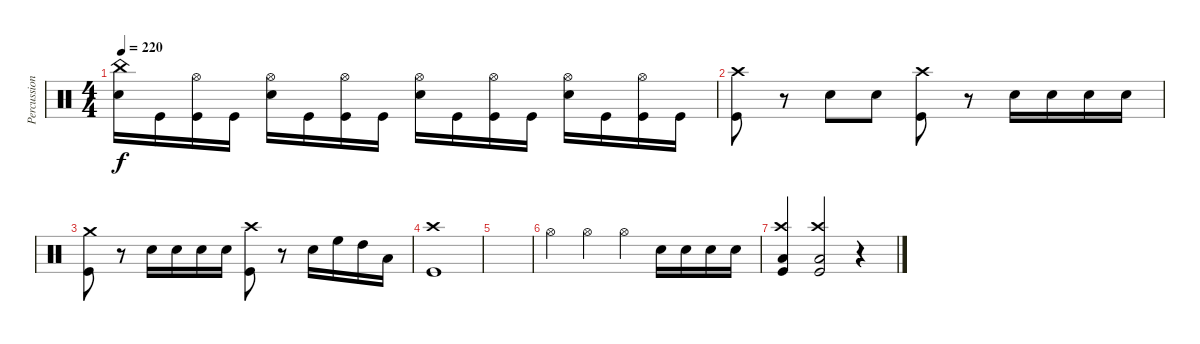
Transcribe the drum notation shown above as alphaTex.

\track ("Percussions" "Percussion") {instrument percussion}
\staff {score}
\articulation defaults
\ts (4 4)
\tempo 220
\clef neutral
\ks c
("China (hit)" "Electric Snare (hit)").16{dy f} "Kick (hit)".16 ("Hi-Hat (open)" "Kick (hit)").16 "Kick (hit)".16 ("Hi-Hat (open)" "Electric Snare (hit)").16 "Kick (hit)".16 ("Hi-Hat (open)" "Kick (hit)").16 "Kick (hit)".16 ("Hi-Hat (open)" "Electric Snare (hit)").16 "Kick (hit)".16 ("Hi-Hat (open)" "Kick (hit)").16 "Kick (hit)".16 ("Hi-Hat (open)" "Electric Snare (hit)").16 "Kick (hit)".16 ("Hi-Hat (open)" "Kick (hit)").16 "Kick (hit)".16 |
("Crash high (hit)" "Kick (hit)").8 r.8 "Electric Snare (hit)".8 "Electric Snare (hit)".8 ("Crash high (hit)" "Kick (hit)").8 r.8 "Electric Snare (hit)".16 "Electric Snare (hit)".16 "Electric Snare (hit)".16 "Electric Snare (hit)".16 |
("Crash medium (hit)" "Kick (hit)").8 r.8 "Electric Snare (hit)".16 "Electric Snare (hit)".16 "Electric Snare (hit)".16 "Electric Snare (hit)".16 ("Crash high (hit)" "Kick (hit)").8 r.8 "Electric Snare (hit)".16 "High Floor Tom (hit)".16 "High Tom (hit)".16 "Low Tom (hit)".16 |
("Crash high (hit)" "Kick (hit)").1 |
|
"Hi-Hat (open)".4 "Hi-Hat (open)".4 "Hi-Hat (open)".4 "Electric Snare (hit)".16 "Electric Snare (hit)".16 "Electric Snare (hit)".16 "Electric Snare (hit)".16 |
("Low Tom (hit)" "Crash high (hit)" "Kick (hit)").4 ("Low Tom (hit)" "Crash high (hit)" "Kick (hit)").2 r.4
